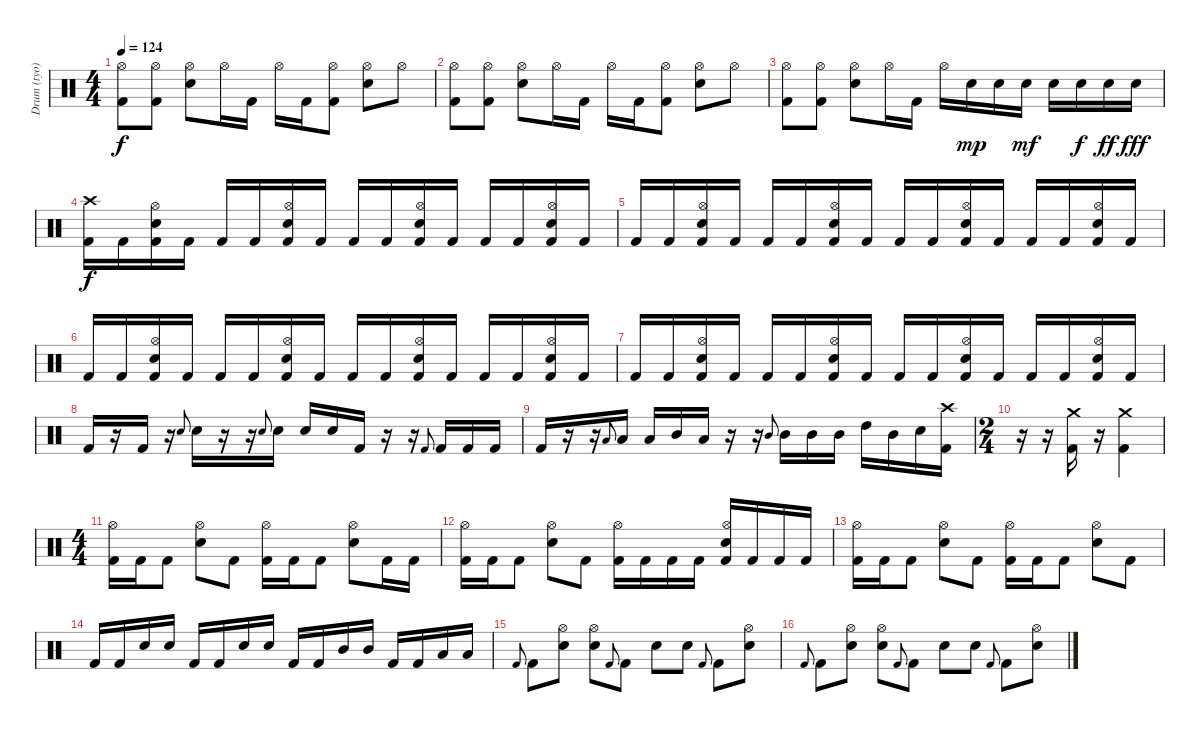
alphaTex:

\track ("Drum (tyo)" "Drum (tyo)") {instrument percussion}
\staff {score}
\articulation defaults
\ts (4 4)
\tempo 124
\clef neutral
\ks c
("Kick (hit) 2" "Hi-Hat (open)").8{dy f} ("Kick (hit) 2" "Hi-Hat (open)").8 ("Electric Snare (hit)" "Hi-Hat (open)").8 "Hi-Hat (open)".16 "Kick (hit) 2".16 "Hi-Hat (open)".16 "Kick (hit) 2".16 ("Kick (hit) 2" "Hi-Hat (open)").8 ("Electric Snare (hit)" "Hi-Hat (open)").8 "Hi-Hat (open)".8 |
("Kick (hit) 2" "Hi-Hat (open)").8 ("Kick (hit) 2" "Hi-Hat (open)").8 ("Electric Snare (hit)" "Hi-Hat (open)").8 "Hi-Hat (open)".16 "Kick (hit) 2".16 "Hi-Hat (open)".16 "Kick (hit) 2".16 ("Kick (hit) 2" "Hi-Hat (open)").8 ("Electric Snare (hit)" "Hi-Hat (open)").8 "Hi-Hat (open)".8 |
("Kick (hit) 2" "Hi-Hat (open)").8 ("Kick (hit) 2" "Hi-Hat (open)").8 ("Electric Snare (hit)" "Hi-Hat (open)").8 "Hi-Hat (open)".16 "Kick (hit) 2".16 "Hi-Hat (open)".16 "Electric Snare (hit)".16{dy mp} "Electric Snare (hit)".16 "Electric Snare (hit)".16{dy mf} "Electric Snare (hit)".16 "Electric Snare (hit)".16{dy f} "Electric Snare (hit)".16{dy ff} "Electric Snare (hit)".16{dy fff} |
("Crash high (hit)" "Kick (hit) 2").16{dy f} "Kick (hit) 2".16 ("Electric Snare (hit)" "Kick (hit) 2" "Hi-Hat (open)").16 "Kick (hit) 2".16 "Kick (hit) 2".16 "Kick (hit) 2".16 ("Kick (hit) 2" "Electric Snare (hit)" "Hi-Hat (open)").16 "Kick (hit) 2".16 "Kick (hit) 2".16 "Kick (hit) 2".16 ("Kick (hit) 2" "Electric Snare (hit)" "Hi-Hat (open)").16 "Kick (hit) 2".16 "Kick (hit) 2".16 "Kick (hit) 2".16 ("Kick (hit) 2" "Electric Snare (hit)" "Hi-Hat (open)").16 "Kick (hit) 2".16 |
"Kick (hit) 2".16 "Kick (hit) 2".16 ("Electric Snare (hit)" "Kick (hit) 2" "Hi-Hat (open)").16 "Kick (hit) 2".16 "Kick (hit) 2".16 "Kick (hit) 2".16 ("Kick (hit) 2" "Electric Snare (hit)" "Hi-Hat (open)").16 "Kick (hit) 2".16 "Kick (hit) 2".16 "Kick (hit) 2".16 ("Kick (hit) 2" "Electric Snare (hit)" "Hi-Hat (open)").16 "Kick (hit) 2".16 "Kick (hit) 2".16 "Kick (hit) 2".16 ("Kick (hit) 2" "Electric Snare (hit)" "Hi-Hat (open)").16 "Kick (hit) 2".16 |
"Kick (hit) 2".16 "Kick (hit) 2".16 ("Electric Snare (hit)" "Kick (hit) 2" "Hi-Hat (open)").16 "Kick (hit) 2".16 "Kick (hit) 2".16 "Kick (hit) 2".16 ("Kick (hit) 2" "Electric Snare (hit)" "Hi-Hat (open)").16 "Kick (hit) 2".16 "Kick (hit) 2".16 "Kick (hit) 2".16 ("Kick (hit) 2" "Electric Snare (hit)" "Hi-Hat (open)").16 "Kick (hit) 2".16 "Kick (hit) 2".16 "Kick (hit) 2".16 ("Kick (hit) 2" "Electric Snare (hit)" "Hi-Hat (open)").16 "Kick (hit) 2".16 |
"Kick (hit) 2".16 "Kick (hit) 2".16 ("Electric Snare (hit)" "Kick (hit) 2" "Hi-Hat (open)").16 "Kick (hit) 2".16 "Kick (hit) 2".16 "Kick (hit) 2".16 ("Kick (hit) 2" "Electric Snare (hit)" "Hi-Hat (open)").16 "Kick (hit) 2".16 "Kick (hit) 2".16 "Kick (hit) 2".16 ("Kick (hit) 2" "Electric Snare (hit)" "Hi-Hat (open)").16 "Kick (hit) 2".16 "Kick (hit) 2".16 "Kick (hit) 2".16 ("Kick (hit) 2" "Electric Snare (hit)" "Hi-Hat (open)").16 "Kick (hit) 2".16 |
"Kick (hit) 2".16 r.16 "Kick (hit) 2".16 r.16 "Electric Snare (hit)".8{gr onbeat} "Electric Snare (hit)".16 r.16 r.16 "Electric Snare (hit)".8{gr onbeat} "Electric Snare (hit)".16 "Electric Snare (hit)".16 "Electric Snare (hit)".16 "Kick (hit) 2".16 r.16 r.16 "Kick (hit) 2".8{gr onbeat} "Kick (hit) 2".16 "Kick (hit) 2".16 "Kick (hit) 2".16 |
"Kick (hit) 2".16 r.16 r.16 "Low Tom (hit)".8{gr onbeat} "Low Tom (hit)".16 "Low Tom (hit)".16 "Mid Tom (hit)".16 "Low Tom (hit)".16 r.16 r.16 "Mid Tom (hit)".8{gr onbeat} "Mid Tom (hit)".16 "Mid Tom (hit)".16 "Mid Tom (hit)".16 "High Tom (hit)".16 "Mid Tom (hit)".16 "Electric Snare (hit)".16 ("Kick (hit) 2" "Crash high (hit)").16 |
\ts (2 4)
r.16 r.16 ("Kick (hit) 2" "Crash medium (hit)").16 r.16 ("Kick (hit) 2" "Crash medium (hit)").4 |
\ts (4 4)
("Hi-Hat (open)" "Kick (hit) 2").16 "Kick (hit) 2".16 "Kick (hit) 2".8 ("Snare (hit) 2" "Hi-Hat (open)").8 "Kick (hit) 2".8 ("Kick (hit) 2" "Hi-Hat (open)").16 "Kick (hit) 2".16 "Kick (hit) 2".8 ("Snare (hit) 2" "Hi-Hat (open)").8 "Kick (hit) 2".16 "Kick (hit) 2".16 |
("Hi-Hat (open)" "Kick (hit) 2").16 "Kick (hit) 2".16 "Kick (hit) 2".8 ("Snare (hit) 2" "Hi-Hat (open)").8 "Kick (hit) 2".8 ("Kick (hit) 2" "Hi-Hat (open)").16 "Kick (hit) 2".16 "Kick (hit) 2".16 "Kick (hit) 2".16 ("Kick (hit) 2" "Snare (hit) 2" "Hi-Hat (open)").16 "Kick (hit) 2".16 "Kick (hit) 2".16 "Kick (hit) 2".16 |
("Hi-Hat (open)" "Kick (hit) 2").16 "Kick (hit) 2".16 "Kick (hit) 2".8 ("Snare (hit) 2" "Hi-Hat (open)").8 "Kick (hit) 2".8 ("Kick (hit) 2" "Hi-Hat (open)").16 "Kick (hit) 2".16 "Kick (hit) 2".8 ("Snare (hit) 2" "Hi-Hat (open)").8 "Kick (hit) 2".8 |
"Kick (hit) 2".16 "Kick (hit) 2".16 "Electric Snare (hit)".16 "Electric Snare (hit)".16 "Kick (hit) 2".16 "Kick (hit) 2".16 "Electric Snare (hit)".16 "Electric Snare (hit)".16 "Kick (hit) 2".16 "Kick (hit) 2".16 "Mid Tom (hit)".16 "Mid Tom (hit)".16 "Kick (hit) 2".16 "Kick (hit) 2".16 "Low Tom (hit)".16 "Low Tom (hit)".16 |
"Kick (hit) 2".8{gr onbeat} "Kick (hit) 2".8 ("Hi-Hat (open)" "Snare (hit) 2").8 ("Hi-Hat (open)" "Snare (hit) 2").8 "Kick (hit) 2".8{gr onbeat} "Kick (hit) 2".8 "Snare (hit) 2".8 "Snare (hit) 2".8 "Kick (hit) 2".8{gr onbeat} "Kick (hit) 2".8 ("Snare (hit) 2" "Hi-Hat (open)").8 |
"Kick (hit) 2".8{gr onbeat} "Kick (hit) 2".8 ("Hi-Hat (open)" "Snare (hit) 2").8 ("Hi-Hat (open)" "Snare (hit) 2").8 "Kick (hit) 2".8{gr onbeat} "Kick (hit) 2".8 "Snare (hit) 2".8 "Snare (hit) 2".8 "Kick (hit) 2".8{gr onbeat} "Kick (hit) 2".8 ("Snare (hit) 2" "Hi-Hat (open)").8
